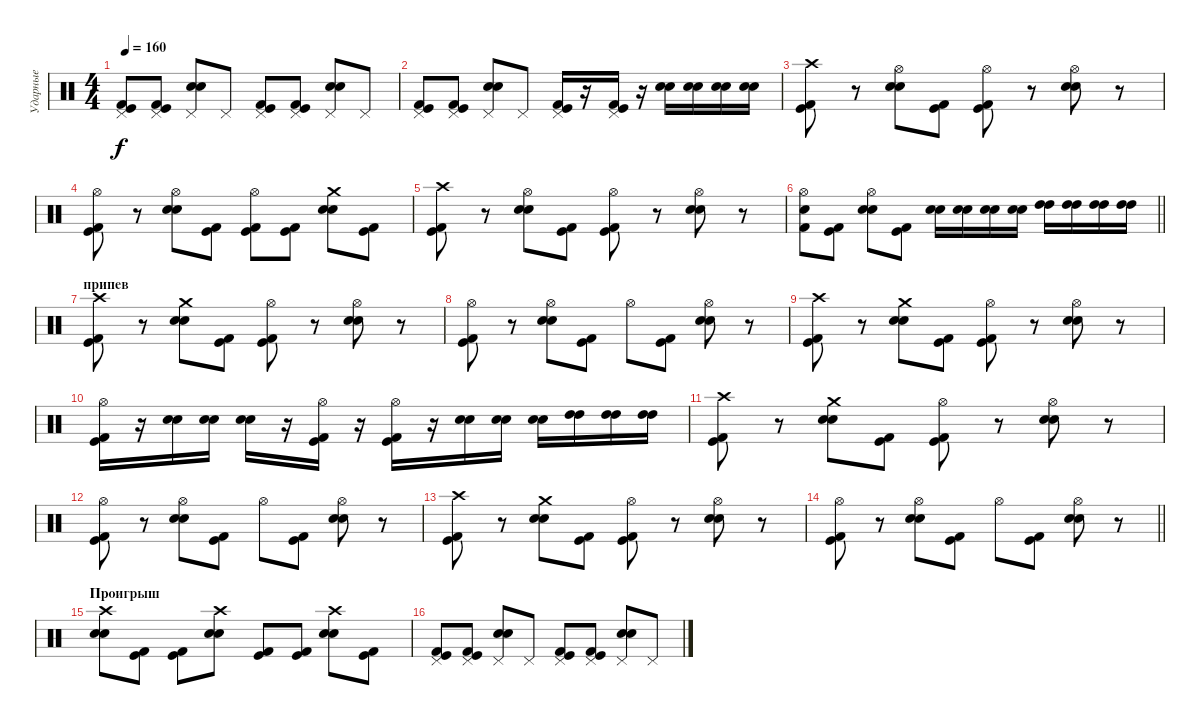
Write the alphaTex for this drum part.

\track ("Ударные" "Ударные") {instrument percussion}
\staff {score}
\articulation defaults
\ts (4 4)
\tempo 160
\clef neutral
\ks c
("Pedal Hi-Hat (hit)" "Kick (hit)" "Kick (hit) 2").8{dy f} ("Pedal Hi-Hat (hit)" "Kick (hit)" "Kick (hit) 2").8 ("Pedal Hi-Hat (hit)" "Snare (hit) 2" "Electric Snare (hit)").8 "Pedal Hi-Hat (hit)".8 ("Pedal Hi-Hat (hit)" "Kick (hit)" "Kick (hit) 2").8 ("Pedal Hi-Hat (hit)" "Kick (hit)" "Kick (hit) 2").8 ("Pedal Hi-Hat (hit)" "Snare (hit) 2" "Electric Snare (hit)").8 "Pedal Hi-Hat (hit)".8 |
("Pedal Hi-Hat (hit)" "Kick (hit)" "Kick (hit) 2").8 ("Pedal Hi-Hat (hit)" "Kick (hit)" "Kick (hit) 2").8 ("Pedal Hi-Hat (hit)" "Snare (hit) 2" "Electric Snare (hit)").8 "Pedal Hi-Hat (hit)".8 ("Pedal Hi-Hat (hit)" "Kick (hit)" "Kick (hit) 2").16 r.16 ("Pedal Hi-Hat (hit)" "Kick (hit)" "Kick (hit) 2").16 r.16 ("Snare (hit) 2" "Electric Snare (hit)").16 ("Snare (hit) 2" "Electric Snare (hit)").16 ("Snare (hit) 2" "Electric Snare (hit)").16 ("Snare (hit) 2" "Electric Snare (hit)").16 |
("Crash high (hit)" "Kick (hit)" "Kick (hit) 2").8 r.8 ("Hi-Hat (open)" "Snare (hit) 2" "Electric Snare (hit)").8 ("Kick (hit)" "Kick (hit) 2").8 ("Hi-Hat (open)" "Kick (hit)" "Kick (hit) 2").8 r.8 ("Hi-Hat (open)" "Snare (hit) 2" "Electric Snare (hit)").8 r.8 |
("Hi-Hat (open)" "Kick (hit)" "Kick (hit) 2").8 r.8 ("Hi-Hat (open)" "Snare (hit) 2" "Electric Snare (hit)").8 ("Kick (hit)" "Kick (hit) 2").8 ("Hi-Hat (open)" "Kick (hit)" "Kick (hit) 2").8 ("Kick (hit)" "Kick (hit) 2").8 ("Crash medium (hit)" "Snare (hit) 2" "Electric Snare (hit)").8 ("Kick (hit)" "Kick (hit) 2").8 |
("Crash high (hit)" "Kick (hit)" "Kick (hit) 2").8 r.8 ("Hi-Hat (open)" "Snare (hit) 2" "Electric Snare (hit)").8 ("Kick (hit)" "Kick (hit) 2").8 ("Hi-Hat (open)" "Kick (hit)" "Kick (hit) 2").8 r.8 ("Hi-Hat (open)" "Snare (hit) 2" "Electric Snare (hit)").8 r.8 |
\barLineRight lightlight
("Hi-Hat (open)" "Snare (hit) 2" "Kick (hit) 2").8 ("Kick (hit)" "Kick (hit) 2").8 ("Hi-Hat (open)" "Snare (hit) 2" "Electric Snare (hit)").8 ("Kick (hit)" "Kick (hit) 2").8 ("Snare (hit) 2" "Electric Snare (hit)").16 ("Snare (hit) 2" "Electric Snare (hit)").16 ("Snare (hit) 2" "Electric Snare (hit)").16 ("Snare (hit) 2" "Electric Snare (hit)").16 ("High Tom (hit)" "High Tom (hit)").16 ("High Tom (hit)" "High Tom (hit)").16 ("High Tom (hit)" "High Tom (hit)").16 ("High Tom (hit)" "High Tom (hit)").16 |
\section ("" "припев")
("Crash high (hit)" "Kick (hit) 2" "Kick (hit)").8 r.8 ("Crash medium (hit)" "Electric Snare (hit)" "Snare (hit) 2").8 ("Kick (hit) 2" "Kick (hit)").8 ("Hi-Hat (open)" "Kick (hit) 2" "Kick (hit)").8 r.8 ("Hi-Hat (open)" "Electric Snare (hit)" "Snare (hit) 2").8 r.8 |
("Hi-Hat (open)" "Kick (hit) 2" "Kick (hit)").8 r.8 ("Hi-Hat (open)" "Electric Snare (hit)" "Snare (hit) 2").8 ("Kick (hit) 2" "Kick (hit)").8 "Hi-Hat (open)".8 ("Kick (hit) 2" "Kick (hit)").8 ("Hi-Hat (open)" "Electric Snare (hit)" "Snare (hit) 2").8 r.8 |
("Crash high (hit)" "Kick (hit) 2" "Kick (hit)").8 r.8 ("Crash medium (hit)" "Electric Snare (hit)" "Snare (hit) 2").8 ("Kick (hit) 2" "Kick (hit)").8 ("Hi-Hat (open)" "Kick (hit) 2" "Kick (hit)").8 r.8 ("Hi-Hat (open)" "Electric Snare (hit)" "Snare (hit) 2").8 r.8 |
("Hi-Hat (open)" "Kick (hit) 2" "Kick (hit)").16 r.16 ("Snare (hit) 2" "Electric Snare (hit)").16 ("Snare (hit) 2" "Electric Snare (hit)").16 ("Snare (hit) 2" "Electric Snare (hit)").16 r.16 ("Hi-Hat (open)" "Kick (hit)" "Kick (hit) 2").16 r.16 ("Hi-Hat (open)" "Kick (hit)" "Kick (hit) 2").16 r.16 ("Snare (hit) 2" "Electric Snare (hit)").16 ("Snare (hit) 2" "Electric Snare (hit)").16 ("Snare (hit) 2" "Electric Snare (hit)").16 ("High Tom (hit)" "High Tom (hit)").16 ("High Tom (hit)" "High Tom (hit)").16 ("High Tom (hit)" "High Tom (hit)").16 |
("Crash high (hit)" "Kick (hit) 2" "Kick (hit)").8 r.8 ("Crash medium (hit)" "Electric Snare (hit)" "Snare (hit) 2").8 ("Kick (hit) 2" "Kick (hit)").8 ("Hi-Hat (open)" "Kick (hit) 2" "Kick (hit)").8 r.8 ("Hi-Hat (open)" "Electric Snare (hit)" "Snare (hit) 2").8 r.8 |
("Hi-Hat (open)" "Kick (hit) 2" "Kick (hit)").8 r.8 ("Hi-Hat (open)" "Electric Snare (hit)" "Snare (hit) 2").8 ("Kick (hit) 2" "Kick (hit)").8 "Hi-Hat (open)".8 ("Kick (hit) 2" "Kick (hit)").8 ("Hi-Hat (open)" "Electric Snare (hit)" "Snare (hit) 2").8 r.8 |
("Crash high (hit)" "Kick (hit) 2" "Kick (hit)").8 r.8 ("Crash medium (hit)" "Electric Snare (hit)" "Snare (hit) 2").8 ("Kick (hit) 2" "Kick (hit)").8 ("Hi-Hat (open)" "Kick (hit) 2" "Kick (hit)").8 r.8 ("Hi-Hat (open)" "Electric Snare (hit)" "Snare (hit) 2").8 r.8 |
\barLineRight lightlight
("Hi-Hat (open)" "Kick (hit) 2" "Kick (hit)").8 r.8 ("Hi-Hat (open)" "Electric Snare (hit)" "Snare (hit) 2").8 ("Kick (hit) 2" "Kick (hit)").8 "Hi-Hat (open)".8 ("Kick (hit) 2" "Kick (hit)").8 ("Hi-Hat (open)" "Electric Snare (hit)" "Snare (hit) 2").8 r.8 |
\section ("" "Проигрыш")
("Crash high (hit)" "Snare (hit) 2" "Electric Snare (hit)").8 ("Kick (hit)" "Kick (hit) 2").8 ("Kick (hit)" "Kick (hit) 2").8 ("Crash high (hit)" "Snare (hit) 2" "Electric Snare (hit)").8 ("Kick (hit)" "Kick (hit) 2").8 ("Kick (hit)" "Kick (hit) 2").8 ("Crash high (hit)" "Snare (hit) 2" "Electric Snare (hit)").8 ("Kick (hit)" "Kick (hit) 2").8 |
("Pedal Hi-Hat (hit)" "Kick (hit)" "Kick (hit) 2").8 ("Pedal Hi-Hat (hit)" "Kick (hit)" "Kick (hit) 2").8 ("Pedal Hi-Hat (hit)" "Snare (hit) 2" "Electric Snare (hit)").8 "Pedal Hi-Hat (hit)".8 ("Pedal Hi-Hat (hit)" "Kick (hit)" "Kick (hit) 2").8 ("Pedal Hi-Hat (hit)" "Kick (hit)" "Kick (hit) 2").8 ("Pedal Hi-Hat (hit)" "Snare (hit) 2" "Electric Snare (hit)").8 "Pedal Hi-Hat (hit)".8
